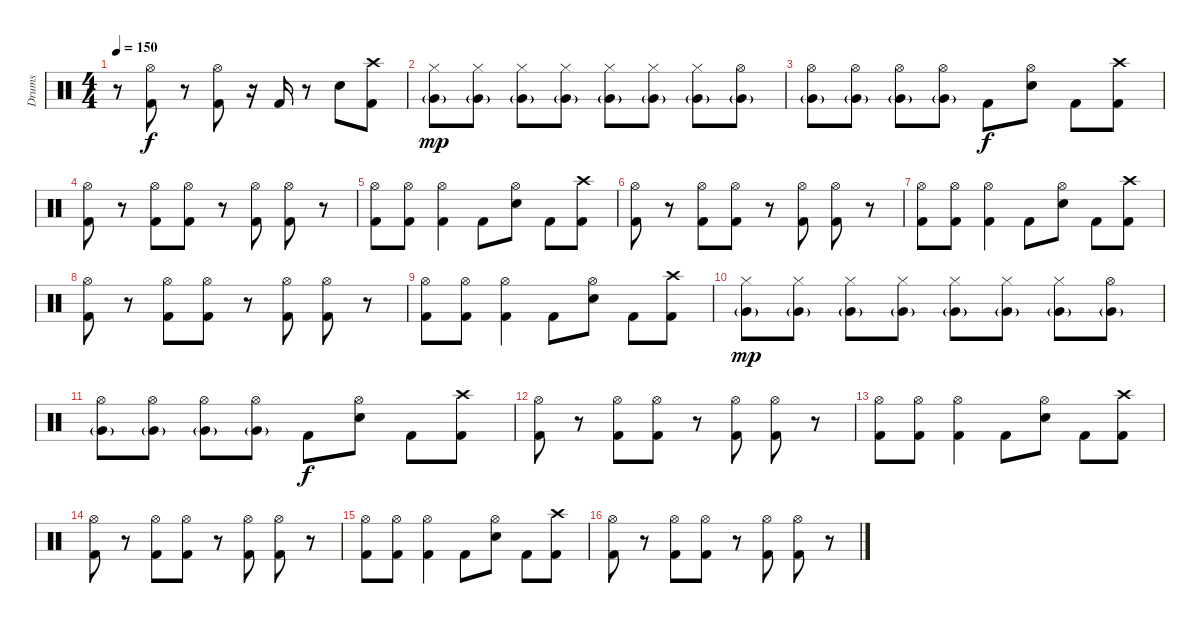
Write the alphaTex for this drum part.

\track ("Drums" "Drums") {instrument percussion}
\staff {score}
\articulation defaults
\ts (4 4)
\tempo 150
\clef neutral
\ks c
r.8{dy f} ("Kick (hit) 2" "Hi-Hat (open)").8 r.8 ("Kick (hit) 2" "Hi-Hat (open)").8 r.16 "Kick (hit) 2".16 r.8 "Snare (hit) 2".8 ("Kick (hit) 2" "Crash high (hit)").8 |
("Very Low Tom (hit)"{g} "Hi-Hat (closed)").8{dy mp} ("Very Low Tom (hit)"{g} "Hi-Hat (closed)").8 ("Very Low Tom (hit)"{g} "Hi-Hat (closed)").8 ("Very Low Tom (hit)"{g} "Hi-Hat (closed)").8 ("Very Low Tom (hit)"{g} "Hi-Hat (closed)").8 ("Very Low Tom (hit)"{g} "Hi-Hat (closed)").8 ("Very Low Tom (hit)"{g} "Hi-Hat (closed)").8 ("Very Low Tom (hit)"{g} "Hi-Hat (open)").8 |
("Very Low Tom (hit)"{g} "Hi-Hat (open)").8 ("Very Low Tom (hit)"{g} "Hi-Hat (open)").8 ("Very Low Tom (hit)"{g} "Hi-Hat (open)").8 ("Very Low Tom (hit)"{g} "Hi-Hat (open)").8 "Kick (hit) 2".8{dy f} ("Snare (hit) 2" "Hi-Hat (open)").8 "Kick (hit) 2".8 ("Kick (hit) 2" "Crash high (hit)").8 |
("Kick (hit) 2" "Hi-Hat (open)").8 r.8 ("Kick (hit) 2" "Hi-Hat (open)").8 ("Kick (hit) 2" "Hi-Hat (open)").8 r.8 ("Kick (hit) 2" "Hi-Hat (open)").8 ("Kick (hit) 2" "Hi-Hat (open)").8 r.8 |
("Kick (hit) 2" "Hi-Hat (open)").8 ("Kick (hit) 2" "Hi-Hat (open)").8 ("Kick (hit) 2" "Hi-Hat (open)").4 "Kick (hit) 2".8 ("Snare (hit) 2" "Hi-Hat (open)").8 "Kick (hit) 2".8 ("Kick (hit) 2" "Crash high (hit)").8 |
("Kick (hit) 2" "Hi-Hat (open)").8 r.8 ("Kick (hit) 2" "Hi-Hat (open)").8 ("Kick (hit) 2" "Hi-Hat (open)").8 r.8 ("Kick (hit) 2" "Hi-Hat (open)").8 ("Kick (hit) 2" "Hi-Hat (open)").8 r.8 |
("Kick (hit) 2" "Hi-Hat (open)").8 ("Kick (hit) 2" "Hi-Hat (open)").8 ("Kick (hit) 2" "Hi-Hat (open)").4 "Kick (hit) 2".8 ("Snare (hit) 2" "Hi-Hat (open)").8 "Kick (hit) 2".8 ("Kick (hit) 2" "Crash high (hit)").8 |
("Kick (hit) 2" "Hi-Hat (open)").8 r.8 ("Kick (hit) 2" "Hi-Hat (open)").8 ("Kick (hit) 2" "Hi-Hat (open)").8 r.8 ("Kick (hit) 2" "Hi-Hat (open)").8 ("Kick (hit) 2" "Hi-Hat (open)").8 r.8 |
("Kick (hit) 2" "Hi-Hat (open)").8 ("Kick (hit) 2" "Hi-Hat (open)").8 ("Kick (hit) 2" "Hi-Hat (open)").4 "Kick (hit) 2".8 ("Snare (hit) 2" "Hi-Hat (open)").8 "Kick (hit) 2".8 ("Kick (hit) 2" "Crash high (hit)").8 |
("Very Low Tom (hit)"{g} "Hi-Hat (closed)").8{dy mp} ("Very Low Tom (hit)"{g} "Hi-Hat (closed)").8 ("Very Low Tom (hit)"{g} "Hi-Hat (closed)").8 ("Very Low Tom (hit)"{g} "Hi-Hat (closed)").8 ("Very Low Tom (hit)"{g} "Hi-Hat (closed)").8 ("Very Low Tom (hit)"{g} "Hi-Hat (closed)").8 ("Very Low Tom (hit)"{g} "Hi-Hat (closed)").8 ("Very Low Tom (hit)"{g} "Hi-Hat (open)").8 |
("Very Low Tom (hit)"{g} "Hi-Hat (open)").8 ("Very Low Tom (hit)"{g} "Hi-Hat (open)").8 ("Very Low Tom (hit)"{g} "Hi-Hat (open)").8 ("Very Low Tom (hit)"{g} "Hi-Hat (open)").8 "Kick (hit) 2".8{dy f} ("Snare (hit) 2" "Hi-Hat (open)").8 "Kick (hit) 2".8 ("Kick (hit) 2" "Crash high (hit)").8 |
("Kick (hit) 2" "Hi-Hat (open)").8 r.8 ("Kick (hit) 2" "Hi-Hat (open)").8 ("Kick (hit) 2" "Hi-Hat (open)").8 r.8 ("Kick (hit) 2" "Hi-Hat (open)").8 ("Kick (hit) 2" "Hi-Hat (open)").8 r.8 |
("Kick (hit) 2" "Hi-Hat (open)").8 ("Kick (hit) 2" "Hi-Hat (open)").8 ("Kick (hit) 2" "Hi-Hat (open)").4 "Kick (hit) 2".8 ("Snare (hit) 2" "Hi-Hat (open)").8 "Kick (hit) 2".8 ("Kick (hit) 2" "Crash high (hit)").8 |
("Kick (hit) 2" "Hi-Hat (open)").8 r.8 ("Kick (hit) 2" "Hi-Hat (open)").8 ("Kick (hit) 2" "Hi-Hat (open)").8 r.8 ("Kick (hit) 2" "Hi-Hat (open)").8 ("Kick (hit) 2" "Hi-Hat (open)").8 r.8 |
("Kick (hit) 2" "Hi-Hat (open)").8 ("Kick (hit) 2" "Hi-Hat (open)").8 ("Kick (hit) 2" "Hi-Hat (open)").4 "Kick (hit) 2".8 ("Snare (hit) 2" "Hi-Hat (open)").8 "Kick (hit) 2".8 ("Kick (hit) 2" "Crash high (hit)").8 |
("Kick (hit) 2" "Hi-Hat (open)").8 r.8 ("Kick (hit) 2" "Hi-Hat (open)").8 ("Kick (hit) 2" "Hi-Hat (open)").8 r.8 ("Kick (hit) 2" "Hi-Hat (open)").8 ("Kick (hit) 2" "Hi-Hat (open)").8 r.8
